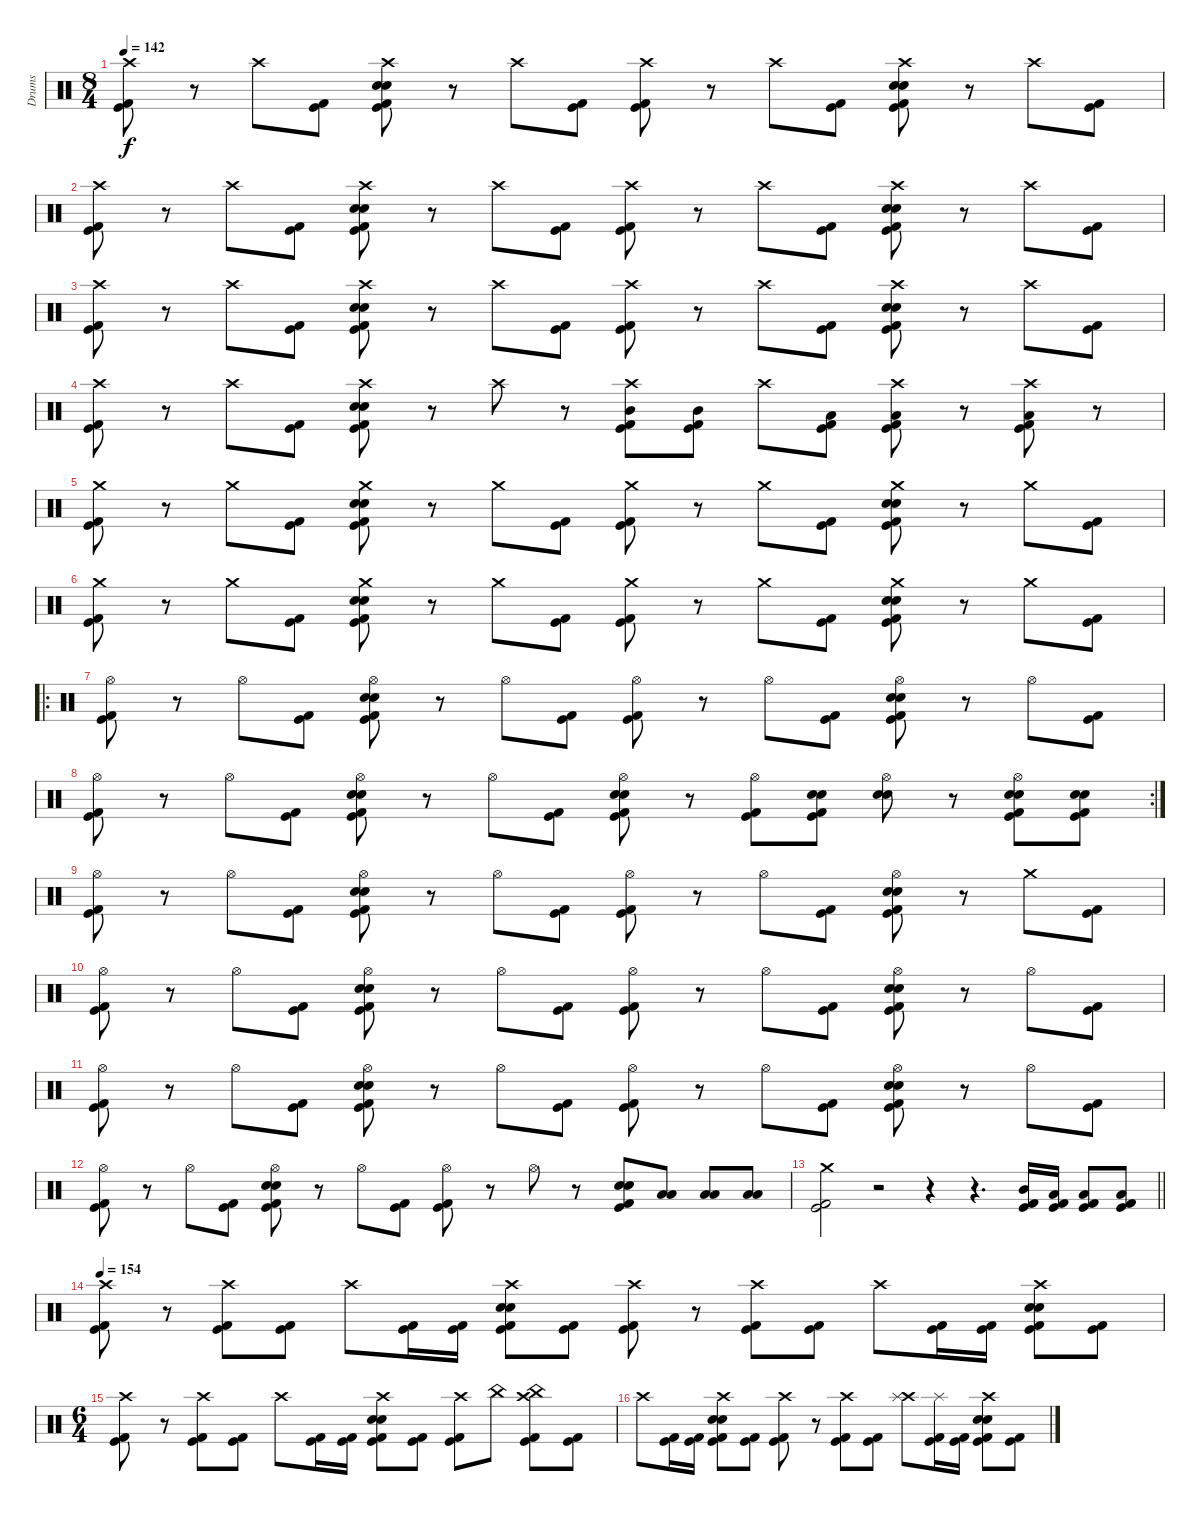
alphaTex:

\track ("Drums" "Drums") {instrument percussion}
\staff {score}
\articulation defaults
\ts (8 4)
\tempo 142
\clef neutral
\ks c
("Crash high (hit)" "Kick (hit)" "Kick (hit) 2").8{dy f} r.8 "Crash high (hit)".8 ("Kick (hit)" "Kick (hit) 2").8 ("Crash high (hit)" "Snare (hit) 2" "Electric Snare (hit)" "Kick (hit)" "Kick (hit) 2").8 r.8 "Crash high (hit)".8 ("Kick (hit)" "Kick (hit) 2").8 ("Crash high (hit)" "Kick (hit)" "Kick (hit) 2").8 r.8 "Crash high (hit)".8 ("Kick (hit)" "Kick (hit) 2").8 ("Crash high (hit)" "Snare (hit) 2" "Electric Snare (hit)" "Kick (hit)" "Kick (hit) 2").8 r.8 "Crash high (hit)".8 ("Kick (hit)" "Kick (hit) 2").8 |
("Crash high (hit)" "Kick (hit)" "Kick (hit) 2").8 r.8 "Crash high (hit)".8 ("Kick (hit)" "Kick (hit) 2").8 ("Crash high (hit)" "Snare (hit) 2" "Electric Snare (hit)" "Kick (hit)" "Kick (hit) 2").8 r.8 "Crash high (hit)".8 ("Kick (hit)" "Kick (hit) 2").8 ("Crash high (hit)" "Kick (hit)" "Kick (hit) 2").8 r.8 "Crash high (hit)".8 ("Kick (hit)" "Kick (hit) 2").8 ("Crash high (hit)" "Snare (hit) 2" "Electric Snare (hit)" "Kick (hit)" "Kick (hit) 2").8 r.8 "Crash high (hit)".8 ("Kick (hit)" "Kick (hit) 2").8 |
("Crash high (hit)" "Kick (hit)" "Kick (hit) 2").8 r.8 "Crash high (hit)".8 ("Kick (hit)" "Kick (hit) 2").8 ("Crash high (hit)" "Snare (hit) 2" "Electric Snare (hit)" "Kick (hit)" "Kick (hit) 2").8 r.8 "Crash high (hit)".8 ("Kick (hit)" "Kick (hit) 2").8 ("Crash high (hit)" "Kick (hit)" "Kick (hit) 2").8 r.8 "Crash high (hit)".8 ("Kick (hit)" "Kick (hit) 2").8 ("Crash high (hit)" "Snare (hit) 2" "Electric Snare (hit)" "Kick (hit)" "Kick (hit) 2").8 r.8 "Crash high (hit)".8 ("Kick (hit)" "Kick (hit) 2").8 |
("Crash high (hit)" "Kick (hit)" "Kick (hit) 2").8 r.8 "Crash high (hit)".8 ("Kick (hit)" "Kick (hit) 2").8 ("Crash high (hit)" "Snare (hit) 2" "Electric Snare (hit)" "Kick (hit)" "Kick (hit) 2").8 r.8 "Crash high (hit)".8 r.8 ("Crash high (hit)" "Mid Tom (hit)" "Kick (hit)" "Kick (hit) 2").8 ("Mid Tom (hit)" "Kick (hit)" "Kick (hit) 2").8 "Crash high (hit)".8 ("Low Tom (hit)" "Kick (hit)" "Kick (hit) 2").8 ("Crash high (hit)" "Low Tom (hit)" "Kick (hit)" "Kick (hit) 2").8 r.8 ("Crash high (hit)" "Low Floor Tom (hit)" "Kick (hit)" "Kick (hit) 2").8 r.8 |
("Crash medium (hit)" "Kick (hit)" "Kick (hit) 2").8 r.8 "Crash medium (hit)".8 ("Kick (hit)" "Kick (hit) 2").8 ("Crash medium (hit)" "Snare (hit) 2" "Electric Snare (hit)" "Kick (hit)" "Kick (hit) 2").8 r.8 "Crash medium (hit)".8 ("Kick (hit)" "Kick (hit) 2").8 ("Crash medium (hit)" "Kick (hit)" "Kick (hit) 2").8 r.8 "Crash medium (hit)".8 ("Kick (hit)" "Kick (hit) 2").8 ("Crash medium (hit)" "Snare (hit) 2" "Electric Snare (hit)" "Kick (hit)" "Kick (hit) 2").8 r.8 "Crash medium (hit)".8 ("Kick (hit)" "Kick (hit) 2").8 |
("Crash medium (hit)" "Kick (hit)" "Kick (hit) 2").8 r.8 "Crash medium (hit)".8 ("Kick (hit)" "Kick (hit) 2").8 ("Crash medium (hit)" "Snare (hit) 2" "Electric Snare (hit)" "Kick (hit)" "Kick (hit) 2").8 r.8 "Crash medium (hit)".8 ("Kick (hit)" "Kick (hit) 2").8 ("Crash medium (hit)" "Kick (hit)" "Kick (hit) 2").8 r.8 "Crash medium (hit)".8 ("Kick (hit)" "Kick (hit) 2").8 ("Crash medium (hit)" "Snare (hit) 2" "Electric Snare (hit)" "Kick (hit)" "Kick (hit) 2").8 r.8 "Crash medium (hit)".8 ("Kick (hit)" "Kick (hit) 2").8 |
\ro
("Hi-Hat (open)" "Kick (hit)" "Kick (hit) 2").8 r.8 "Hi-Hat (open)".8 ("Kick (hit)" "Kick (hit) 2").8 ("Hi-Hat (open)" "Snare (hit) 2" "Electric Snare (hit)" "Kick (hit)" "Kick (hit) 2").8 r.8 "Hi-Hat (open)".8 ("Kick (hit)" "Kick (hit) 2").8 ("Hi-Hat (open)" "Kick (hit)" "Kick (hit) 2").8 r.8 "Hi-Hat (open)".8 ("Kick (hit)" "Kick (hit) 2").8 ("Hi-Hat (open)" "Snare (hit) 2" "Electric Snare (hit)" "Kick (hit)" "Kick (hit) 2").8 r.8 "Hi-Hat (open)".8 ("Kick (hit)" "Kick (hit) 2").8 |
\rc 2
("Hi-Hat (open)" "Kick (hit)" "Kick (hit) 2").8 r.8 "Hi-Hat (open)".8 ("Kick (hit)" "Kick (hit) 2").8 ("Hi-Hat (open)" "Snare (hit) 2" "Electric Snare (hit)" "Kick (hit)" "Kick (hit) 2").8 r.8 "Hi-Hat (open)".8 ("Kick (hit)" "Kick (hit) 2").8 ("Hi-Hat (open)" "Snare (hit) 2" "Electric Snare (hit)" "Kick (hit)" "Kick (hit) 2").8 r.8 ("Hi-Hat (open)" "Kick (hit)" "Kick (hit) 2").8 ("Snare (hit) 2" "Electric Snare (hit)" "Kick (hit)" "Kick (hit) 2").8 ("Hi-Hat (open)" "Snare (hit) 2" "Electric Snare (hit)").8 r.8 ("Hi-Hat (open)" "Snare (hit) 2" "Electric Snare (hit)" "Kick (hit)" "Kick (hit) 2").8 ("Snare (hit) 2" "Electric Snare (hit)" "Kick (hit)" "Kick (hit) 2").8 |
("Hi-Hat (open)" "Kick (hit)" "Kick (hit) 2").8 r.8 "Hi-Hat (open)".8 ("Kick (hit)" "Kick (hit) 2").8 ("Hi-Hat (open)" "Snare (hit) 2" "Electric Snare (hit)" "Kick (hit)" "Kick (hit) 2").8 r.8 "Hi-Hat (open)".8 ("Kick (hit)" "Kick (hit) 2").8 ("Hi-Hat (open)" "Kick (hit)" "Kick (hit) 2").8 r.8 "Hi-Hat (open)".8 ("Kick (hit)" "Kick (hit) 2").8 ("Hi-Hat (open)" "Snare (hit) 2" "Electric Snare (hit)" "Kick (hit)" "Kick (hit) 2").8 r.8 "Crash medium (hit)".8 ("Kick (hit)" "Kick (hit) 2").8 |
("Hi-Hat (open)" "Kick (hit)" "Kick (hit) 2").8 r.8 "Hi-Hat (open)".8 ("Kick (hit)" "Kick (hit) 2").8 ("Hi-Hat (open)" "Snare (hit) 2" "Electric Snare (hit)" "Kick (hit)" "Kick (hit) 2").8 r.8 "Hi-Hat (open)".8 ("Kick (hit)" "Kick (hit) 2").8 ("Hi-Hat (open)" "Kick (hit)" "Kick (hit) 2").8 r.8 "Hi-Hat (open)".8 ("Kick (hit)" "Kick (hit) 2").8 ("Hi-Hat (open)" "Snare (hit) 2" "Electric Snare (hit)" "Kick (hit)" "Kick (hit) 2").8 r.8 "Hi-Hat (open)".8 ("Kick (hit)" "Kick (hit) 2").8 |
("Hi-Hat (open)" "Kick (hit)" "Kick (hit) 2").8 r.8 "Hi-Hat (open)".8 ("Kick (hit)" "Kick (hit) 2").8 ("Hi-Hat (open)" "Snare (hit) 2" "Electric Snare (hit)" "Kick (hit)" "Kick (hit) 2").8 r.8 "Hi-Hat (open)".8 ("Kick (hit)" "Kick (hit) 2").8 ("Hi-Hat (open)" "Kick (hit)" "Kick (hit) 2").8 r.8 "Hi-Hat (open)".8 ("Kick (hit)" "Kick (hit) 2").8 ("Hi-Hat (open)" "Snare (hit) 2" "Electric Snare (hit)" "Kick (hit)" "Kick (hit) 2").8 r.8 "Hi-Hat (open)".8 ("Kick (hit)" "Kick (hit) 2").8 |
("Hi-Hat (open)" "Kick (hit)" "Kick (hit) 2").8 r.8 "Hi-Hat (open)".8 ("Kick (hit)" "Kick (hit) 2").8 ("Hi-Hat (open)" "Snare (hit) 2" "Electric Snare (hit)" "Kick (hit)" "Kick (hit) 2").8 r.8 "Hi-Hat (open)".8 ("Kick (hit)" "Kick (hit) 2").8 ("Hi-Hat (open)" "Kick (hit)" "Kick (hit) 2").8 r.8 "Hi-Hat (open)".8 r.8 ("Electric Snare (hit)" "Snare (hit) 2" "Kick (hit)" "Kick (hit) 2").8 ("Low Tom (hit)" "Low Tom (hit)").8 ("Low Floor Tom (hit)" "Low Floor Tom (hit)").8 ("Low Floor Tom (hit)" "Low Floor Tom (hit)").8 |
\barLineRight lightlight
("Crash medium (hit)" "Kick (hit)" "Kick (hit) 2").2 r.2 r.4 r.4{d} ("Mid Tom (hit)" "Kick (hit)" "Kick (hit) 2").16 ("Low Tom (hit)" "Kick (hit)" "Kick (hit) 2").16 ("Low Tom (hit)" "Kick (hit)" "Kick (hit) 2").8 ("Low Floor Tom (hit)" "Kick (hit)" "Kick (hit) 2").8 |
\tempo 154
("Crash high (hit)" "Kick (hit)" "Kick (hit) 2").8 r.8 ("Crash high (hit)" "Kick (hit)" "Kick (hit) 2").8 ("Kick (hit)" "Kick (hit) 2").8 "Crash high (hit)".8 ("Kick (hit)" "Kick (hit) 2").16 ("Kick (hit)" "Kick (hit) 2").16 ("Crash high (hit)" "Snare (hit) 2" "Electric Snare (hit)" "Kick (hit)" "Kick (hit) 2").8 ("Kick (hit)" "Kick (hit) 2").8 ("Crash high (hit)" "Kick (hit)" "Kick (hit) 2").8 r.8 ("Crash high (hit)" "Kick (hit)" "Kick (hit) 2").8 ("Kick (hit)" "Kick (hit) 2").8 "Crash high (hit)".8 ("Kick (hit)" "Kick (hit) 2").16 ("Kick (hit)" "Kick (hit) 2").16 ("Crash high (hit)" "Snare (hit) 2" "Electric Snare (hit)" "Kick (hit)" "Kick (hit) 2").8 ("Kick (hit)" "Kick (hit) 2").8 |
\ts (6 4)
("Crash high (hit)" "Kick (hit)" "Kick (hit) 2").8 r.8 ("Crash high (hit)" "Kick (hit)" "Kick (hit) 2").8 ("Kick (hit)" "Kick (hit) 2").8 "Crash high (hit)".8 ("Kick (hit)" "Kick (hit) 2").16 ("Kick (hit)" "Kick (hit) 2").16 ("Crash high (hit)" "Snare (hit) 2" "Electric Snare (hit)" "Kick (hit)" "Kick (hit) 2").8 ("Kick (hit)" "Kick (hit) 2").8 ("Crash high (hit)" "Kick (hit)" "Kick (hit) 2").8 "China (hit)".8 ("Crash high (hit)" "China (hit)" "Kick (hit)" "Kick (hit) 2").8 ("Kick (hit)" "Kick (hit) 2").8 |
"Crash high (hit)".8 ("Kick (hit)" "Kick (hit) 2").16 ("Kick (hit)" "Kick (hit) 2").16 ("Crash high (hit)" "Snare (hit) 2" "Electric Snare (hit)" "Kick (hit)" "Kick (hit) 2").8 ("Kick (hit)" "Kick (hit) 2").8 ("Crash high (hit)" "Kick (hit)" "Kick (hit) 2").8 r.8 ("Crash high (hit)" "Kick (hit)" "Kick (hit) 2").8 ("Kick (hit)" "Kick (hit) 2").8 ("Crash high (hit)" "Splash (hit)").8 ("Splash (hit)" "Kick (hit)" "Kick (hit) 2").16 ("Kick (hit)" "Kick (hit) 2").16 ("Crash high (hit)" "Snare (hit) 2" "Electric Snare (hit)" "Kick (hit)" "Kick (hit) 2").8 ("Kick (hit)" "Kick (hit) 2").8
